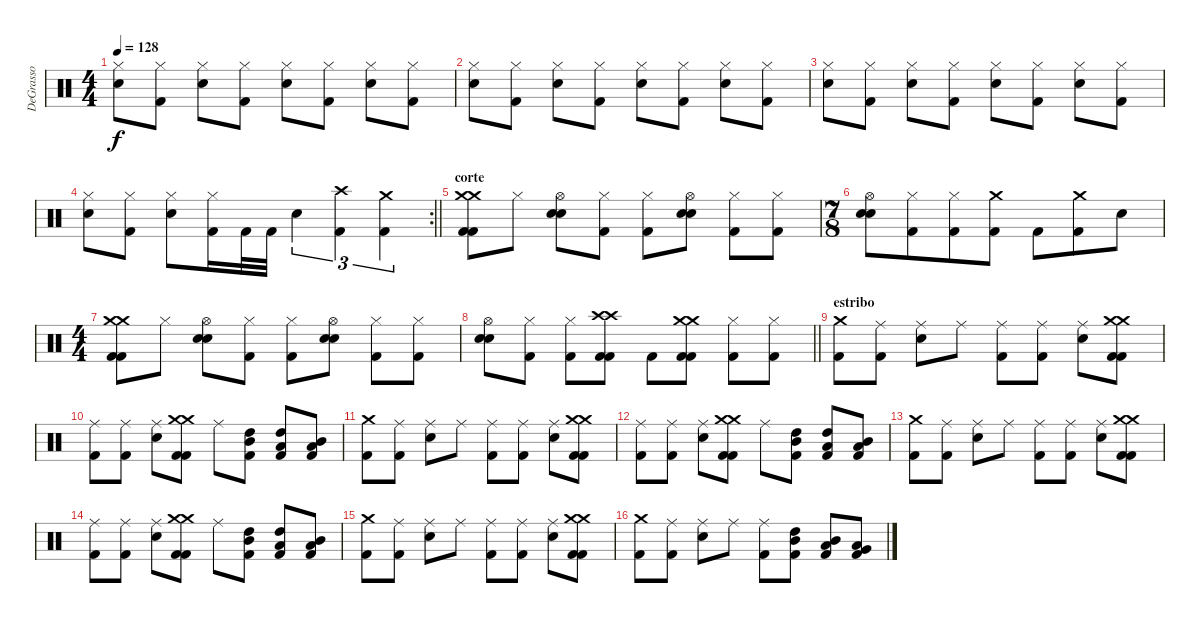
\track ("DeGrasso" "DeGrasso") {instrument percussion}
\staff {score}
\articulation defaults
\ts (4 4)
\tempo 128
\clef neutral
\ks c
("Hi-Hat (closed)" "Electric Snare (hit)").8{dy f} ("Hi-Hat (closed)" "Kick (hit) 2").8 ("Hi-Hat (closed)" "Electric Snare (hit)").8 ("Hi-Hat (closed)" "Kick (hit) 2").8 ("Hi-Hat (closed)" "Electric Snare (hit)").8 ("Hi-Hat (closed)" "Kick (hit) 2").8 ("Hi-Hat (closed)" "Electric Snare (hit)").8 ("Hi-Hat (closed)" "Kick (hit) 2").8 |
("Hi-Hat (closed)" "Electric Snare (hit)").8 ("Hi-Hat (closed)" "Kick (hit) 2").8 ("Hi-Hat (closed)" "Electric Snare (hit)").8 ("Hi-Hat (closed)" "Kick (hit) 2").8 ("Hi-Hat (closed)" "Electric Snare (hit)").8 ("Hi-Hat (closed)" "Kick (hit) 2").8 ("Hi-Hat (closed)" "Electric Snare (hit)").8 ("Hi-Hat (closed)" "Kick (hit) 2").8 |
("Hi-Hat (closed)" "Electric Snare (hit)").8 ("Hi-Hat (closed)" "Kick (hit) 2").8 ("Hi-Hat (closed)" "Electric Snare (hit)").8 ("Hi-Hat (closed)" "Kick (hit) 2").8 ("Hi-Hat (closed)" "Electric Snare (hit)").8 ("Hi-Hat (closed)" "Kick (hit) 2").8 ("Hi-Hat (closed)" "Electric Snare (hit)").8 ("Hi-Hat (closed)" "Kick (hit) 2").8 |
\rc 2
\barLineRight lightlight
("Hi-Hat (closed)" "Electric Snare (hit)").8 ("Hi-Hat (closed)" "Kick (hit) 2").8 ("Hi-Hat (closed)" "Electric Snare (hit)").8 ("Hi-Hat (closed)" "Kick (hit) 2").16 "Kick (hit) 2".32 "Kick (hit) 2".32 "Electric Snare (hit)".4{tu (3 2)} ("Crash high (hit)" "Kick (hit) 2").4{tu (3 2)} ("Crash medium (hit)" "Kick (hit) 2").4{tu (3 2)} |
\section ("" "corte")
("Crash medium (hit)" "Crash medium (hit)" "Kick (hit) 2" "Kick (hit) 2").8 "Hi-Hat (closed)".8 ("Hi-Hat (open)" "Snare (hit) 2" "Electric Snare (hit)").8 ("Hi-Hat (closed)" "Kick (hit) 2").8 ("Hi-Hat (closed)" "Kick (hit) 2").8 ("Hi-Hat (open)" "Snare (hit) 2" "Electric Snare (hit)").8 ("Hi-Hat (closed)" "Kick (hit) 2").8 ("Hi-Hat (closed)" "Kick (hit) 2").8 |
\ts (7 8)
("Hi-Hat (open)" "Snare (hit) 2" "Electric Snare (hit)").8 ("Hi-Hat (closed)" "Kick (hit) 2").8 ("Hi-Hat (closed)" "Kick (hit) 2").8 ("Crash medium (hit)" "Kick (hit) 2").8 "Kick (hit) 2".8 ("Crash medium (hit)" "Kick (hit) 2").8 "Electric Snare (hit)".8 |
\ts (4 4)
("Crash medium (hit)" "Crash medium (hit)" "Kick (hit) 2" "Kick (hit) 2").8 "Hi-Hat (closed)".8 ("Hi-Hat (open)" "Snare (hit) 2" "Electric Snare (hit)").8 ("Hi-Hat (closed)" "Kick (hit) 2").8 ("Hi-Hat (closed)" "Kick (hit) 2").8 ("Hi-Hat (open)" "Snare (hit) 2" "Electric Snare (hit)").8 ("Hi-Hat (closed)" "Kick (hit) 2").8 ("Hi-Hat (closed)" "Kick (hit) 2").8 |
\barLineRight lightlight
("Hi-Hat (open)" "Snare (hit) 2" "Electric Snare (hit)").8 ("Hi-Hat (closed)" "Kick (hit) 2").8 ("Hi-Hat (closed)" "Kick (hit) 2").8 ("Crash high (hit)" "Crash high (hit)" "Kick (hit) 2" "Kick (hit) 2").8 "Kick (hit) 2".8 ("Crash medium (hit)" "Crash medium (hit)" "Kick (hit) 2" "Kick (hit) 2").8 ("Hi-Hat (closed)" "Kick (hit) 2").8 ("Hi-Hat (closed)" "Kick (hit) 2").8 |
\section ("" "estribo")
("Crash medium (hit)" "Kick (hit) 2").8 ("Ride (middle)" "Kick (hit) 2").8 ("Ride (middle)" "Electric Snare (hit)").8 "Ride (middle)".8 ("Ride (middle)" "Kick (hit) 2").8 ("Ride (middle)" "Kick (hit) 2").8 ("Ride (middle)" "Electric Snare (hit)").8 ("Crash medium (hit)" "Crash medium (hit)" "Kick (hit) 2" "Kick (hit) 2").8 |
("Ride (middle)" "Kick (hit) 2").8 ("Ride (middle)" "Kick (hit) 2").8 ("Ride (middle)" "Electric Snare (hit)").8 ("Crash medium (hit)" "Crash medium (hit)" "Kick (hit) 2" "Kick (hit) 2").8 "Ride (middle)".8 ("High Tom (hit)" "Mid Tom (hit)" "Kick (hit) 2").8 ("High Tom (hit)" "Low Tom (hit)" "Kick (hit) 2").8 ("Mid Tom (hit)" "Low Tom (hit)" "Kick (hit) 2").8 |
("Crash medium (hit)" "Kick (hit) 2").8 ("Ride (middle)" "Kick (hit) 2").8 ("Ride (middle)" "Electric Snare (hit)").8 "Ride (middle)".8 ("Ride (middle)" "Kick (hit) 2").8 ("Ride (middle)" "Kick (hit) 2").8 ("Ride (middle)" "Electric Snare (hit)").8 ("Crash medium (hit)" "Crash medium (hit)" "Kick (hit) 2" "Kick (hit) 2").8 |
("Ride (middle)" "Kick (hit) 2").8 ("Ride (middle)" "Kick (hit) 2").8 ("Ride (middle)" "Electric Snare (hit)").8 ("Crash medium (hit)" "Crash medium (hit)" "Kick (hit) 2" "Kick (hit) 2").8 "Ride (middle)".8 ("High Tom (hit)" "Mid Tom (hit)" "Kick (hit) 2").8 ("High Tom (hit)" "Low Tom (hit)" "Kick (hit) 2").8 ("Mid Tom (hit)" "Low Tom (hit)" "Kick (hit) 2").8 |
("Crash medium (hit)" "Kick (hit) 2").8 ("Ride (middle)" "Kick (hit) 2").8 ("Ride (middle)" "Electric Snare (hit)").8 "Ride (middle)".8 ("Ride (middle)" "Kick (hit) 2").8 ("Ride (middle)" "Kick (hit) 2").8 ("Ride (middle)" "Electric Snare (hit)").8 ("Crash medium (hit)" "Crash medium (hit)" "Kick (hit) 2" "Kick (hit) 2").8 |
("Ride (middle)" "Kick (hit) 2").8 ("Ride (middle)" "Kick (hit) 2").8 ("Ride (middle)" "Electric Snare (hit)").8 ("Crash medium (hit)" "Crash medium (hit)" "Kick (hit) 2" "Kick (hit) 2").8 "Ride (middle)".8 ("High Tom (hit)" "Mid Tom (hit)" "Kick (hit) 2").8 ("High Tom (hit)" "Low Tom (hit)" "Kick (hit) 2").8 ("Mid Tom (hit)" "Low Tom (hit)" "Kick (hit) 2").8 |
("Crash medium (hit)" "Kick (hit) 2").8 ("Ride (middle)" "Kick (hit) 2").8 ("Ride (middle)" "Electric Snare (hit)").8 "Ride (middle)".8 ("Ride (middle)" "Kick (hit) 2").8 ("Ride (middle)" "Kick (hit) 2").8 ("Ride (middle)" "Electric Snare (hit)").8 ("Crash medium (hit)" "Crash medium (hit)" "Kick (hit) 2" "Kick (hit) 2").8 |
("Crash medium (hit)" "Kick (hit) 2").8 ("Ride (middle)" "Kick (hit) 2").8 ("Ride (middle)" "Electric Snare (hit)").8 "Ride (middle)".8 ("Ride (middle)" "Kick (hit) 2").8 ("High Tom (hit)" "Mid Tom (hit)" "Kick (hit) 2").8 ("Mid Tom (hit)" "Low Tom (hit)" "Kick (hit) 2").8 ("Low Tom (hit)" "Very Low Tom (hit)" "Kick (hit) 2").8
